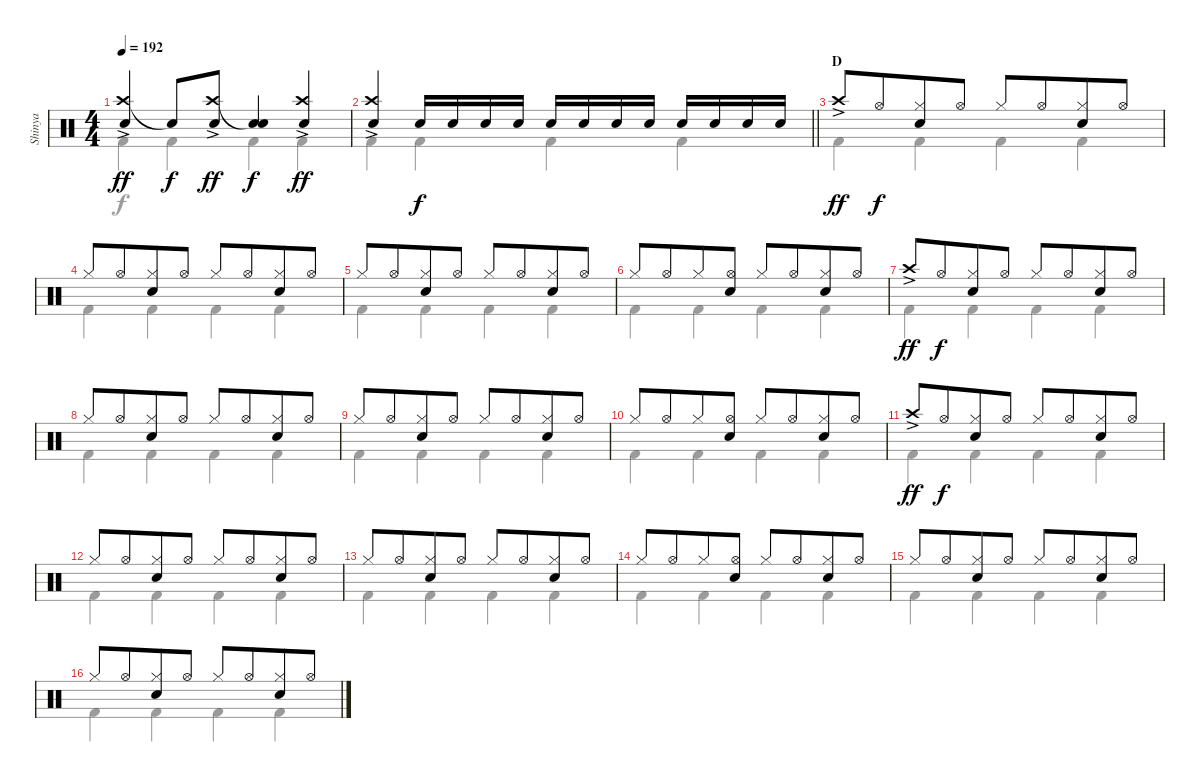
\track ("Shinya" "Shinya") {instrument percussion}
\staff {score}
\articulation defaults
\voice
\ts (4 4)
\tempo 192
\clef neutral
\ks c
("Crash high (hit)"{ac} "Snare (hit) 2").4{dy ff} "Snare (hit)"{t}.8{dy f} ("Crash high (hit)"{ac} "Snare (hit) 2").8{dy ff} ("Snare (hit)"{t} "Snare (hit) 2").4{dy f} ("Crash high (hit)"{ac} "Snare (hit) 2").4{dy ff} |
\barLineRight lightlight
("Crash high (hit)"{ac} "Snare (hit) 2").4 "Snare (hit) 2".16{dy f} "Snare (hit) 2".16 "Snare (hit) 2".16 "Snare (hit) 2".16 "Snare (hit) 2".16 "Snare (hit) 2".16 "Snare (hit) 2".16 "Snare (hit) 2".16 "Snare (hit) 2".16 "Snare (hit) 2".16 "Snare (hit) 2".16 "Snare (hit) 2".16 |
\section ("" "D")
"Crash high (hit)"{ac}.8{dy ff} "Hi-Hat (open)".8{dy f beam merge} ("Hi-Hat (closed)" "Snare (hit) 2").8 "Hi-Hat (open)".8 "Hi-Hat (closed)".8 "Hi-Hat (open)".8{beam merge} ("Hi-Hat (closed)" "Snare (hit) 2").8 "Hi-Hat (open)".8 |
"Hi-Hat (closed)".8 "Hi-Hat (open)".8{beam merge} ("Hi-Hat (closed)" "Snare (hit) 2").8 "Hi-Hat (open)".8 "Hi-Hat (closed)".8 "Hi-Hat (open)".8{beam merge} ("Hi-Hat (closed)" "Snare (hit) 2").8 "Hi-Hat (open)".8 |
"Hi-Hat (closed)".8 "Hi-Hat (open)".8{beam merge} ("Hi-Hat (closed)" "Snare (hit) 2").8 "Hi-Hat (open)".8 "Hi-Hat (closed)".8 "Hi-Hat (open)".8{beam merge} ("Hi-Hat (closed)" "Snare (hit) 2").8 "Hi-Hat (open)".8 |
"Hi-Hat (closed)".8 "Hi-Hat (open)".8{beam merge} "Hi-Hat (closed)".8 ("Hi-Hat (open)" "Snare (hit) 2").8 "Hi-Hat (closed)".8 "Hi-Hat (open)".8{beam merge} ("Hi-Hat (closed)" "Snare (hit) 2").8 "Hi-Hat (open)".8 |
"Crash high (hit)"{ac}.8{dy ff} "Hi-Hat (open)".8{dy f beam merge} ("Hi-Hat (closed)" "Snare (hit) 2").8 "Hi-Hat (open)".8 "Hi-Hat (closed)".8 "Hi-Hat (open)".8{beam merge} ("Hi-Hat (closed)" "Snare (hit) 2").8 "Hi-Hat (open)".8 |
"Hi-Hat (closed)".8 "Hi-Hat (open)".8{beam merge} ("Hi-Hat (closed)" "Snare (hit) 2").8 "Hi-Hat (open)".8 "Hi-Hat (closed)".8 "Hi-Hat (open)".8{beam merge} ("Hi-Hat (closed)" "Snare (hit) 2").8 "Hi-Hat (open)".8 |
"Hi-Hat (closed)".8 "Hi-Hat (open)".8{beam merge} ("Hi-Hat (closed)" "Snare (hit) 2").8 "Hi-Hat (open)".8 "Hi-Hat (closed)".8 "Hi-Hat (open)".8{beam merge} ("Hi-Hat (closed)" "Snare (hit) 2").8 "Hi-Hat (open)".8 |
"Hi-Hat (closed)".8 "Hi-Hat (open)".8{beam merge} "Hi-Hat (closed)".8 ("Hi-Hat (open)" "Snare (hit) 2").8 "Hi-Hat (closed)".8 "Hi-Hat (open)".8{beam merge} ("Hi-Hat (closed)" "Snare (hit) 2").8 "Hi-Hat (open)".8 |
"Crash high (hit)"{ac}.8{dy ff} "Hi-Hat (open)".8{dy f beam merge} ("Hi-Hat (closed)" "Snare (hit) 2").8 "Hi-Hat (open)".8 "Hi-Hat (closed)".8 "Hi-Hat (open)".8{beam merge} ("Hi-Hat (closed)" "Snare (hit) 2").8 "Hi-Hat (open)".8 |
"Hi-Hat (closed)".8 "Hi-Hat (open)".8{beam merge} ("Hi-Hat (closed)" "Snare (hit) 2").8 "Hi-Hat (open)".8 "Hi-Hat (closed)".8 "Hi-Hat (open)".8{beam merge} ("Hi-Hat (closed)" "Snare (hit) 2").8 "Hi-Hat (open)".8 |
"Hi-Hat (closed)".8 "Hi-Hat (open)".8{beam merge} ("Hi-Hat (closed)" "Snare (hit) 2").8 "Hi-Hat (open)".8 "Hi-Hat (closed)".8 "Hi-Hat (open)".8{beam merge} ("Hi-Hat (closed)" "Snare (hit) 2").8 "Hi-Hat (open)".8 |
"Hi-Hat (closed)".8 "Hi-Hat (open)".8{beam merge} "Hi-Hat (closed)".8 ("Hi-Hat (open)" "Snare (hit) 2").8 "Hi-Hat (closed)".8 "Hi-Hat (open)".8{beam merge} ("Hi-Hat (closed)" "Snare (hit) 2").8 "Hi-Hat (open)".8 |
"Hi-Hat (closed)".8 "Hi-Hat (open)".8{beam merge} ("Hi-Hat (closed)" "Snare (hit) 2").8 "Hi-Hat (open)".8 "Hi-Hat (closed)".8 "Hi-Hat (open)".8{beam merge} ("Hi-Hat (closed)" "Snare (hit) 2").8 "Hi-Hat (open)".8 |
"Hi-Hat (closed)".8 "Hi-Hat (open)".8{beam merge} ("Hi-Hat (closed)" "Snare (hit) 2").8 "Hi-Hat (open)".8 "Hi-Hat (closed)".8 "Hi-Hat (open)".8{beam merge} ("Hi-Hat (closed)" "Snare (hit) 2").8 "Hi-Hat (open)".8
\voice
\clef neutral
\ottava regular
\simile none
\ks c "Kick (hit) 2".4{dy f} "Kick (hit) 2".4 "Kick (hit) 2".4 "Kick (hit) 2".4
|
\barLineRight lightlight "Kick (hit) 2".4 "Kick (hit) 2".4 "Kick (hit) 2".4 "Kick (hit) 2".4
|
"Kick (hit) 2".4 "Kick (hit) 2".4 "Kick (hit) 2".4 "Kick (hit) 2".4 |
"Kick (hit) 2".4 "Kick (hit) 2".4 "Kick (hit) 2".4 "Kick (hit) 2".4 |
"Kick (hit) 2".4 "Kick (hit) 2".4 "Kick (hit) 2".4 "Kick (hit) 2".4 |
"Kick (hit) 2".4 "Kick (hit) 2".4 "Kick (hit) 2".4 "Kick (hit) 2".4 |
"Kick (hit) 2".4 "Kick (hit) 2".4 "Kick (hit) 2".4 "Kick (hit) 2".4 |
"Kick (hit) 2".4 "Kick (hit) 2".4 "Kick (hit) 2".4 "Kick (hit) 2".4 |
"Kick (hit) 2".4 "Kick (hit) 2".4 "Kick (hit) 2".4 "Kick (hit) 2".4 |
"Kick (hit) 2".4 "Kick (hit) 2".4 "Kick (hit) 2".4 "Kick (hit) 2".4 |
"Kick (hit) 2".4 "Kick (hit) 2".4 "Kick (hit) 2".4 "Kick (hit) 2".4 |
"Kick (hit) 2".4 "Kick (hit) 2".4 "Kick (hit) 2".4 "Kick (hit) 2".4 |
"Kick (hit) 2".4 "Kick (hit) 2".4 "Kick (hit) 2".4 "Kick (hit) 2".4 |
"Kick (hit) 2".4 "Kick (hit) 2".4 "Kick (hit) 2".4 "Kick (hit) 2".4 |
"Kick (hit) 2".4 "Kick (hit) 2".4 "Kick (hit) 2".4 "Kick (hit) 2".4 |
"Kick (hit) 2".4 "Kick (hit) 2".4 "Kick (hit) 2".4 "Kick (hit) 2".4
